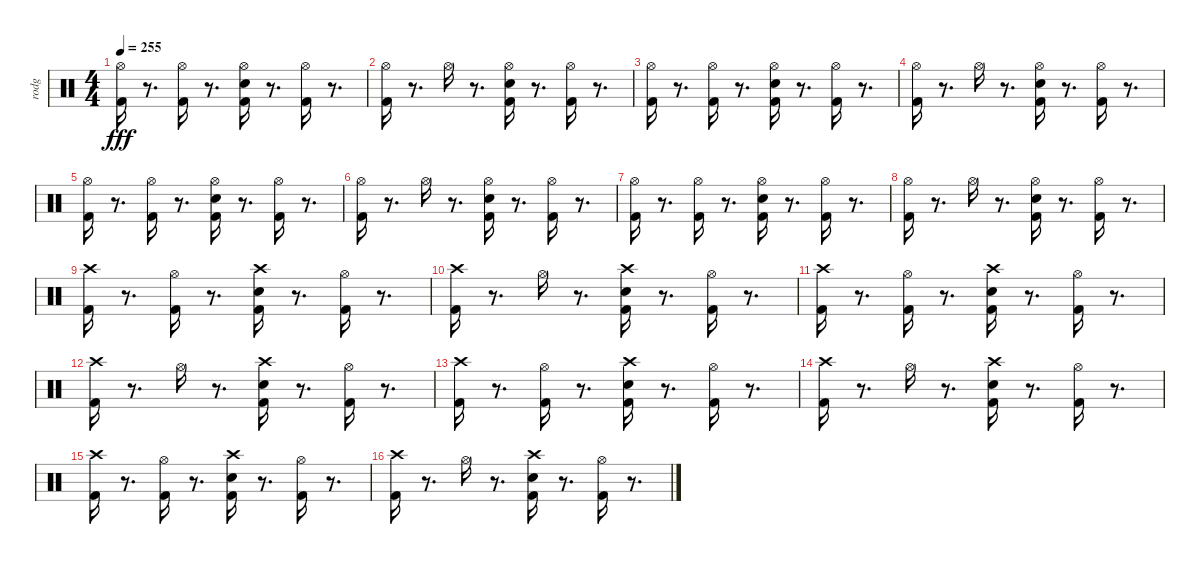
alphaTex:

\track ("rodg" "rodg") {instrument percussion}
\staff {score}
\articulation defaults
\ts (4 4)
\tempo 255
\clef neutral
\ks c
("Hi-Hat (open)" "Kick (hit) 2").16{dy fff} r.8{d} ("Kick (hit) 2" "Hi-Hat (open)").16 r.8{d} ("Kick (hit) 2" "Electric Snare (hit)" "Hi-Hat (open)").16 r.8{d} ("Kick (hit) 2" "Hi-Hat (open)").16 r.8{d} |
("Kick (hit) 2" "Hi-Hat (open)").16 r.8{d} "Hi-Hat (open)".16 r.8{d} ("Kick (hit) 2" "Electric Snare (hit)" "Hi-Hat (open)").16 r.8{d} ("Kick (hit) 2" "Hi-Hat (open)").16 r.8{d} |
("Hi-Hat (open)" "Kick (hit) 2").16 r.8{d} ("Kick (hit) 2" "Hi-Hat (open)").16 r.8{d} ("Kick (hit) 2" "Electric Snare (hit)" "Hi-Hat (open)").16 r.8{d} ("Kick (hit) 2" "Hi-Hat (open)").16 r.8{d} |
("Kick (hit) 2" "Hi-Hat (open)").16 r.8{d} "Hi-Hat (open)".16 r.8{d} ("Kick (hit) 2" "Electric Snare (hit)" "Hi-Hat (open)").16 r.8{d} ("Kick (hit) 2" "Hi-Hat (open)").16 r.8{d} |
("Hi-Hat (open)" "Kick (hit) 2").16 r.8{d} ("Kick (hit) 2" "Hi-Hat (open)").16 r.8{d} ("Kick (hit) 2" "Electric Snare (hit)" "Hi-Hat (open)").16 r.8{d} ("Kick (hit) 2" "Hi-Hat (open)").16 r.8{d} |
("Kick (hit) 2" "Hi-Hat (open)").16 r.8{d} "Hi-Hat (open)".16 r.8{d} ("Kick (hit) 2" "Electric Snare (hit)" "Hi-Hat (open)").16 r.8{d} ("Kick (hit) 2" "Hi-Hat (open)").16 r.8{d} |
("Hi-Hat (open)" "Kick (hit) 2").16 r.8{d} ("Kick (hit) 2" "Hi-Hat (open)").16 r.8{d} ("Kick (hit) 2" "Electric Snare (hit)" "Hi-Hat (open)").16 r.8{d} ("Kick (hit) 2" "Hi-Hat (open)").16 r.8{d} |
("Kick (hit) 2" "Hi-Hat (open)").16 r.8{d} "Hi-Hat (open)".16 r.8{d} ("Kick (hit) 2" "Electric Snare (hit)" "Hi-Hat (open)").16 r.8{d} ("Kick (hit) 2" "Hi-Hat (open)").16 r.8{d} |
("Crash high (hit)" "Kick (hit) 2").16 r.8{d} ("Kick (hit) 2" "Hi-Hat (open)").16 r.8{d} ("Kick (hit) 2" "Electric Snare (hit)" "Crash high (hit)").16 r.8{d} ("Kick (hit) 2" "Hi-Hat (open)").16 r.8{d} |
("Kick (hit) 2" "Crash high (hit)").16 r.8{d} "Hi-Hat (open)".16 r.8{d} ("Kick (hit) 2" "Electric Snare (hit)" "Crash high (hit)").16 r.8{d} ("Kick (hit) 2" "Hi-Hat (open)").16 r.8{d} |
("Crash high (hit)" "Kick (hit) 2").16 r.8{d} ("Kick (hit) 2" "Hi-Hat (open)").16 r.8{d} ("Kick (hit) 2" "Electric Snare (hit)" "Crash high (hit)").16 r.8{d} ("Kick (hit) 2" "Hi-Hat (open)").16 r.8{d} |
("Kick (hit) 2" "Crash high (hit)").16 r.8{d} "Hi-Hat (open)".16 r.8{d} ("Kick (hit) 2" "Electric Snare (hit)" "Crash high (hit)").16 r.8{d} ("Kick (hit) 2" "Hi-Hat (open)").16 r.8{d} |
("Crash high (hit)" "Kick (hit) 2").16 r.8{d} ("Kick (hit) 2" "Hi-Hat (open)").16 r.8{d} ("Kick (hit) 2" "Electric Snare (hit)" "Crash high (hit)").16 r.8{d} ("Kick (hit) 2" "Hi-Hat (open)").16 r.8{d} |
("Kick (hit) 2" "Crash high (hit)").16 r.8{d} "Hi-Hat (open)".16 r.8{d} ("Kick (hit) 2" "Electric Snare (hit)" "Crash high (hit)").16 r.8{d} ("Kick (hit) 2" "Hi-Hat (open)").16 r.8{d} |
("Crash high (hit)" "Kick (hit) 2").16 r.8{d} ("Kick (hit) 2" "Hi-Hat (open)").16 r.8{d} ("Kick (hit) 2" "Electric Snare (hit)" "Crash high (hit)").16 r.8{d} ("Kick (hit) 2" "Hi-Hat (open)").16 r.8{d} |
("Kick (hit) 2" "Crash high (hit)").16 r.8{d} "Hi-Hat (open)".16 r.8{d} ("Kick (hit) 2" "Electric Snare (hit)" "Crash high (hit)").16 r.8{d} ("Kick (hit) 2" "Hi-Hat (open)").16 r.8{d}
